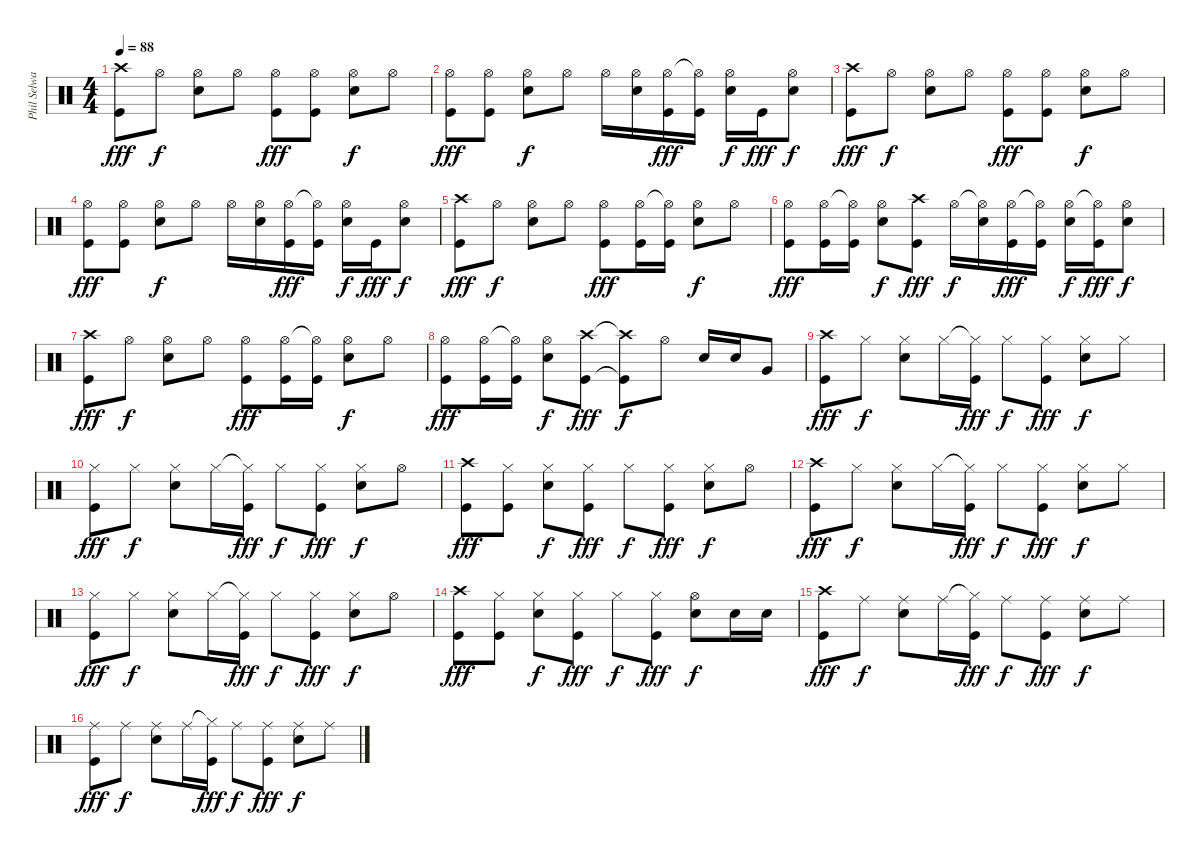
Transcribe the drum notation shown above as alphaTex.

\track ("Phil Selway" "Phil Selwa") {instrument percussion}
\staff {score}
\articulation defaults
\ts (4 4)
\tempo 88
\clef neutral
\ks c
("Crash high (hit)" "Kick (hit)").8{dy fff} "Hi-Hat (open)".8{dy f} ("Hi-Hat (open)" "Snare (hit) 2").8 "Hi-Hat (open)".8 ("Hi-Hat (open)" "Kick (hit)").8{dy fff} ("Hi-Hat (open)" "Kick (hit)").8 ("Hi-Hat (open)" "Snare (hit) 2").8{dy f} "Hi-Hat (open)".8 |
("Hi-Hat (open)" "Kick (hit)").8{dy fff} ("Hi-Hat (open)" "Kick (hit)").8 ("Hi-Hat (open)" "Snare (hit) 2").8{dy f} "Hi-Hat (open)".8 "Hi-Hat (open)".16 ("Hi-Hat (open)" "Snare (hit) 2").16 ("Hi-Hat (open)" "Kick (hit)").16{dy fff} ("Hi-Hat (open)"{t} "Kick (hit)").16 ("Hi-Hat (open)" "Snare (hit) 2").16{dy f} "Kick (hit)".16{dy fff} ("Hi-Hat (open)" "Snare (hit) 2").8{dy f} |
("Crash high (hit)" "Kick (hit)").8{dy fff} "Hi-Hat (open)".8{dy f} ("Hi-Hat (open)" "Snare (hit) 2").8 "Hi-Hat (open)".8 ("Hi-Hat (open)" "Kick (hit)").8{dy fff} ("Hi-Hat (open)" "Kick (hit)").8 ("Hi-Hat (open)" "Snare (hit) 2").8{dy f} "Hi-Hat (open)".8 |
("Hi-Hat (open)" "Kick (hit)").8{dy fff} ("Hi-Hat (open)" "Kick (hit)").8 ("Hi-Hat (open)" "Snare (hit) 2").8{dy f} "Hi-Hat (open)".8 "Hi-Hat (open)".16 ("Hi-Hat (open)" "Snare (hit) 2").16 ("Hi-Hat (open)" "Kick (hit)").16{dy fff} ("Hi-Hat (open)"{t} "Kick (hit)").16 ("Hi-Hat (open)" "Snare (hit) 2").16{dy f} "Kick (hit)".16{dy fff} ("Hi-Hat (open)" "Snare (hit) 2").8{dy f} |
("Crash high (hit)" "Kick (hit)").8{dy fff} "Hi-Hat (open)".8{dy f} ("Hi-Hat (open)" "Snare (hit) 2").8 "Hi-Hat (open)".8 ("Hi-Hat (open)" "Kick (hit)").8{dy fff} ("Hi-Hat (open)" "Kick (hit)").16 ("Hi-Hat (open)"{t} "Kick (hit)").16 ("Hi-Hat (open)" "Snare (hit) 2").8{dy f} "Hi-Hat (open)".8 |
("Hi-Hat (open)" "Kick (hit)").8{dy fff} ("Hi-Hat (open)" "Kick (hit)").16 ("Hi-Hat (open)"{t} "Kick (hit)").16 ("Hi-Hat (open)" "Snare (hit) 2").8{dy f} ("Crash high (hit)" "Kick (hit)").8{dy fff} "Hi-Hat (open)".16{dy f} ("Hi-Hat (open)"{t} "Snare (hit) 2").16 ("Hi-Hat (open)" "Kick (hit)").16{dy fff} ("Hi-Hat (open)"{t} "Kick (hit)").16 ("Hi-Hat (open)" "Snare (hit) 2").16{dy f} ("Hi-Hat (open)"{t} "Kick (hit)").16{dy fff} ("Hi-Hat (open)" "Snare (hit) 2").8{dy f} |
("Crash high (hit)" "Kick (hit)").8{dy fff} "Hi-Hat (open)".8{dy f} ("Hi-Hat (open)" "Snare (hit) 2").8 "Hi-Hat (open)".8 ("Hi-Hat (open)" "Kick (hit)").8{dy fff} ("Hi-Hat (open)" "Kick (hit)").16 ("Hi-Hat (open)"{t} "Kick (hit)").16 ("Hi-Hat (open)" "Snare (hit) 2").8{dy f} "Hi-Hat (open)".8 |
("Hi-Hat (open)" "Kick (hit)").8{dy fff} ("Hi-Hat (open)" "Kick (hit)").16 ("Hi-Hat (open)"{t} "Kick (hit)").16 ("Hi-Hat (open)" "Snare (hit) 2").8{dy f} ("Crash high (hit)" "Kick (hit)").8{dy fff} ("Crash high (hit)"{t} "Kick (hit)"{t}).8{dy f} "Hi-Hat (open)".8 "Snare (hit) 2".16 "Snare (hit) 2".16 "Very Low Tom (hit)".8 |
("Crash high (hit)" "Kick (hit)").8{dy fff} "Hi-Hat (closed)".8{dy f} ("Hi-Hat (closed)" "Snare (hit) 2").8 "Hi-Hat (closed)".16 ("Hi-Hat (closed)"{t} "Kick (hit)").16{dy fff} "Hi-Hat (closed)".8{dy f} ("Hi-Hat (closed)" "Kick (hit)").8{dy fff} ("Hi-Hat (closed)" "Snare (hit) 2").8{dy f} "Hi-Hat (closed)".8 |
("Hi-Hat (closed)" "Kick (hit)").8{dy fff} "Hi-Hat (closed)".8{dy f} ("Hi-Hat (closed)" "Snare (hit) 2").8 "Hi-Hat (closed)".16 ("Hi-Hat (closed)"{t} "Kick (hit)").16{dy fff} "Hi-Hat (closed)".8{dy f} ("Hi-Hat (closed)" "Kick (hit)").8{dy fff} ("Hi-Hat (closed)" "Snare (hit) 2").8{dy f} "Hi-Hat (open)".8 |
("Crash high (hit)" "Kick (hit)").8{dy fff} ("Hi-Hat (closed)" "Kick (hit)").8 ("Hi-Hat (closed)" "Snare (hit) 2").8{dy f} ("Hi-Hat (closed)" "Kick (hit)").8{dy fff} "Hi-Hat (closed)".8{dy f} ("Hi-Hat (closed)" "Kick (hit)").8{dy fff} ("Hi-Hat (closed)" "Snare (hit) 2").8{dy f} "Hi-Hat (open)".8 |
("Crash high (hit)" "Kick (hit)").8{dy fff} "Hi-Hat (closed)".8{dy f} ("Hi-Hat (closed)" "Snare (hit) 2").8 "Hi-Hat (closed)".16 ("Hi-Hat (closed)"{t} "Kick (hit)").16{dy fff} "Hi-Hat (closed)".8{dy f} ("Hi-Hat (closed)" "Kick (hit)").8{dy fff} ("Hi-Hat (closed)" "Snare (hit) 2").8{dy f} "Hi-Hat (closed)".8 |
("Hi-Hat (closed)" "Kick (hit)").8{dy fff} "Hi-Hat (closed)".8{dy f} ("Hi-Hat (closed)" "Snare (hit) 2").8 "Hi-Hat (closed)".16 ("Hi-Hat (closed)"{t} "Kick (hit)").16{dy fff} "Hi-Hat (closed)".8{dy f} ("Hi-Hat (closed)" "Kick (hit)").8{dy fff} ("Hi-Hat (closed)" "Snare (hit) 2").8{dy f} "Hi-Hat (open)".8 |
("Crash high (hit)" "Kick (hit)").8{dy fff} ("Hi-Hat (closed)" "Kick (hit)").8 ("Hi-Hat (closed)" "Snare (hit) 2").8{dy f} ("Hi-Hat (closed)" "Kick (hit)").8{dy fff} "Hi-Hat (closed)".8{dy f} ("Hi-Hat (closed)" "Kick (hit)").8{dy fff} ("Hi-Hat (open)" "Snare (hit) 2").8{dy f} "Snare (hit) 2".16 "Snare (hit) 2".16 |
("Crash high (hit)" "Kick (hit)").8{dy fff} "Ride (middle)".8{dy f} ("Ride (middle)" "Snare (hit) 2").8 "Ride (middle)".16 ("Hi-Hat (closed)"{t} "Kick (hit)").16{dy fff} "Ride (middle)".8{dy f} ("Ride (middle)" "Kick (hit)").8{dy fff} ("Ride (middle)" "Snare (hit) 2").8{dy f} "Ride (middle)".8 |
("Ride (middle)" "Kick (hit)").8{dy fff} "Ride (middle)".8{dy f} ("Ride (middle)" "Snare (hit) 2").8 "Ride (middle)".16 ("Hi-Hat (closed)"{t} "Kick (hit)").16{dy fff} "Ride (middle)".8{dy f} ("Ride (middle)" "Kick (hit)").8{dy fff} ("Ride (middle)" "Snare (hit) 2").8{dy f} "Ride (middle)".8
